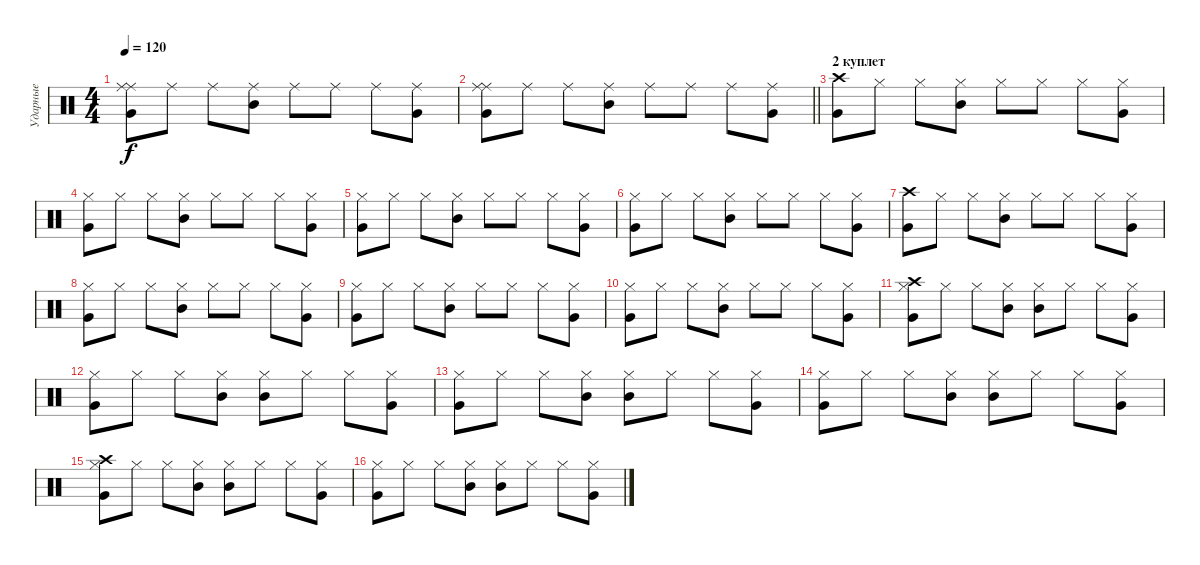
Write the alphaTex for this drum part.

\track ("Ударные" "Ударные") {instrument percussion}
\staff {score}
\articulation defaults
\ts (4 4)
\tempo 120
\clef neutral
\ks c
("Ride (middle)" "Ride (middle)" "Very Low Tom (hit)").8{dy f} "Ride (middle)".8 "Ride (middle)".8 ("Ride (middle)" "Mid Tom (hit)").8 "Ride (middle)".8 "Ride (middle)".8 "Ride (middle)".8 ("Ride (middle)" "Very Low Tom (hit)").8 |
\barLineRight lightlight
("Ride (middle)" "Ride (middle)" "Very Low Tom (hit)").8 "Ride (middle)".8 "Ride (middle)".8 ("Ride (middle)" "Mid Tom (hit)").8 "Ride (middle)".8 "Ride (middle)".8 "Ride (middle)".8 ("Ride (middle)" "Very Low Tom (hit)").8 |
\section ("" "2 куплет")
("Crash high (hit)" "Very Low Tom (hit)").8 "Hi-Hat (closed)".8 "Hi-Hat (closed)".8 ("Hi-Hat (closed)" "Mid Tom (hit)").8 "Hi-Hat (closed)".8 "Hi-Hat (closed)".8 "Hi-Hat (closed)".8 ("Hi-Hat (closed)" "Very Low Tom (hit)").8 |
("Hi-Hat (closed)" "Very Low Tom (hit)").8 "Hi-Hat (closed)".8 "Hi-Hat (closed)".8 ("Hi-Hat (closed)" "Mid Tom (hit)").8 "Hi-Hat (closed)".8 "Hi-Hat (closed)".8 "Hi-Hat (closed)".8 ("Hi-Hat (closed)" "Very Low Tom (hit)").8 |
("Hi-Hat (closed)" "Very Low Tom (hit)").8 "Hi-Hat (closed)".8 "Hi-Hat (closed)".8 ("Hi-Hat (closed)" "Mid Tom (hit)").8 "Hi-Hat (closed)".8 "Hi-Hat (closed)".8 "Hi-Hat (closed)".8 ("Hi-Hat (closed)" "Very Low Tom (hit)").8 |
("Hi-Hat (closed)" "Very Low Tom (hit)").8 "Hi-Hat (closed)".8 "Hi-Hat (closed)".8 ("Hi-Hat (closed)" "Mid Tom (hit)").8 "Hi-Hat (closed)".8 "Hi-Hat (closed)".8 "Hi-Hat (closed)".8 ("Hi-Hat (closed)" "Very Low Tom (hit)").8 |
("Crash high (hit)" "Very Low Tom (hit)").8 "Hi-Hat (closed)".8 "Hi-Hat (closed)".8 ("Hi-Hat (closed)" "Mid Tom (hit)").8 "Hi-Hat (closed)".8 "Hi-Hat (closed)".8 "Hi-Hat (closed)".8 ("Hi-Hat (closed)" "Very Low Tom (hit)").8 |
("Hi-Hat (closed)" "Very Low Tom (hit)").8 "Hi-Hat (closed)".8 "Hi-Hat (closed)".8 ("Hi-Hat (closed)" "Mid Tom (hit)").8 "Hi-Hat (closed)".8 "Hi-Hat (closed)".8 "Hi-Hat (closed)".8 ("Hi-Hat (closed)" "Very Low Tom (hit)").8 |
("Hi-Hat (closed)" "Very Low Tom (hit)").8 "Hi-Hat (closed)".8 "Hi-Hat (closed)".8 ("Hi-Hat (closed)" "Mid Tom (hit)").8 "Hi-Hat (closed)".8 "Hi-Hat (closed)".8 "Hi-Hat (closed)".8 ("Hi-Hat (closed)" "Very Low Tom (hit)").8 |
("Hi-Hat (closed)" "Very Low Tom (hit)").8 "Hi-Hat (closed)".8 "Hi-Hat (closed)".8 ("Hi-Hat (closed)" "Mid Tom (hit)").8 "Hi-Hat (closed)".8 "Hi-Hat (closed)".8 "Hi-Hat (closed)".8 ("Hi-Hat (closed)" "Very Low Tom (hit)").8 |
("Hi-Hat (closed)" "Crash high (hit)" "Very Low Tom (hit)").8 "Hi-Hat (closed)".8 "Hi-Hat (closed)".8 ("Hi-Hat (closed)" "Mid Tom (hit)").8 ("Hi-Hat (closed)" "Mid Tom (hit)").8 "Hi-Hat (closed)".8 "Hi-Hat (closed)".8 ("Hi-Hat (closed)" "Very Low Tom (hit)").8 |
("Hi-Hat (closed)" "Very Low Tom (hit)").8 "Hi-Hat (closed)".8 "Hi-Hat (closed)".8 ("Hi-Hat (closed)" "Mid Tom (hit)").8 ("Hi-Hat (closed)" "Mid Tom (hit)").8 "Hi-Hat (closed)".8 "Hi-Hat (closed)".8 ("Hi-Hat (closed)" "Very Low Tom (hit)").8 |
("Hi-Hat (closed)" "Very Low Tom (hit)").8 "Hi-Hat (closed)".8 "Hi-Hat (closed)".8 ("Hi-Hat (closed)" "Mid Tom (hit)").8 ("Hi-Hat (closed)" "Mid Tom (hit)").8 "Hi-Hat (closed)".8 "Hi-Hat (closed)".8 ("Hi-Hat (closed)" "Very Low Tom (hit)").8 |
("Hi-Hat (closed)" "Very Low Tom (hit)").8 "Hi-Hat (closed)".8 "Hi-Hat (closed)".8 ("Hi-Hat (closed)" "Mid Tom (hit)").8 ("Hi-Hat (closed)" "Mid Tom (hit)").8 "Hi-Hat (closed)".8 "Hi-Hat (closed)".8 ("Hi-Hat (closed)" "Very Low Tom (hit)").8 |
("Hi-Hat (closed)" "Crash high (hit)" "Very Low Tom (hit)").8 "Hi-Hat (closed)".8 "Hi-Hat (closed)".8 ("Hi-Hat (closed)" "Mid Tom (hit)").8 ("Hi-Hat (closed)" "Mid Tom (hit)").8 "Hi-Hat (closed)".8 "Hi-Hat (closed)".8 ("Hi-Hat (closed)" "Very Low Tom (hit)").8 |
("Hi-Hat (closed)" "Very Low Tom (hit)").8 "Hi-Hat (closed)".8 "Hi-Hat (closed)".8 ("Hi-Hat (closed)" "Mid Tom (hit)").8 ("Hi-Hat (closed)" "Mid Tom (hit)").8 "Hi-Hat (closed)".8 "Hi-Hat (closed)".8 ("Hi-Hat (closed)" "Very Low Tom (hit)").8
